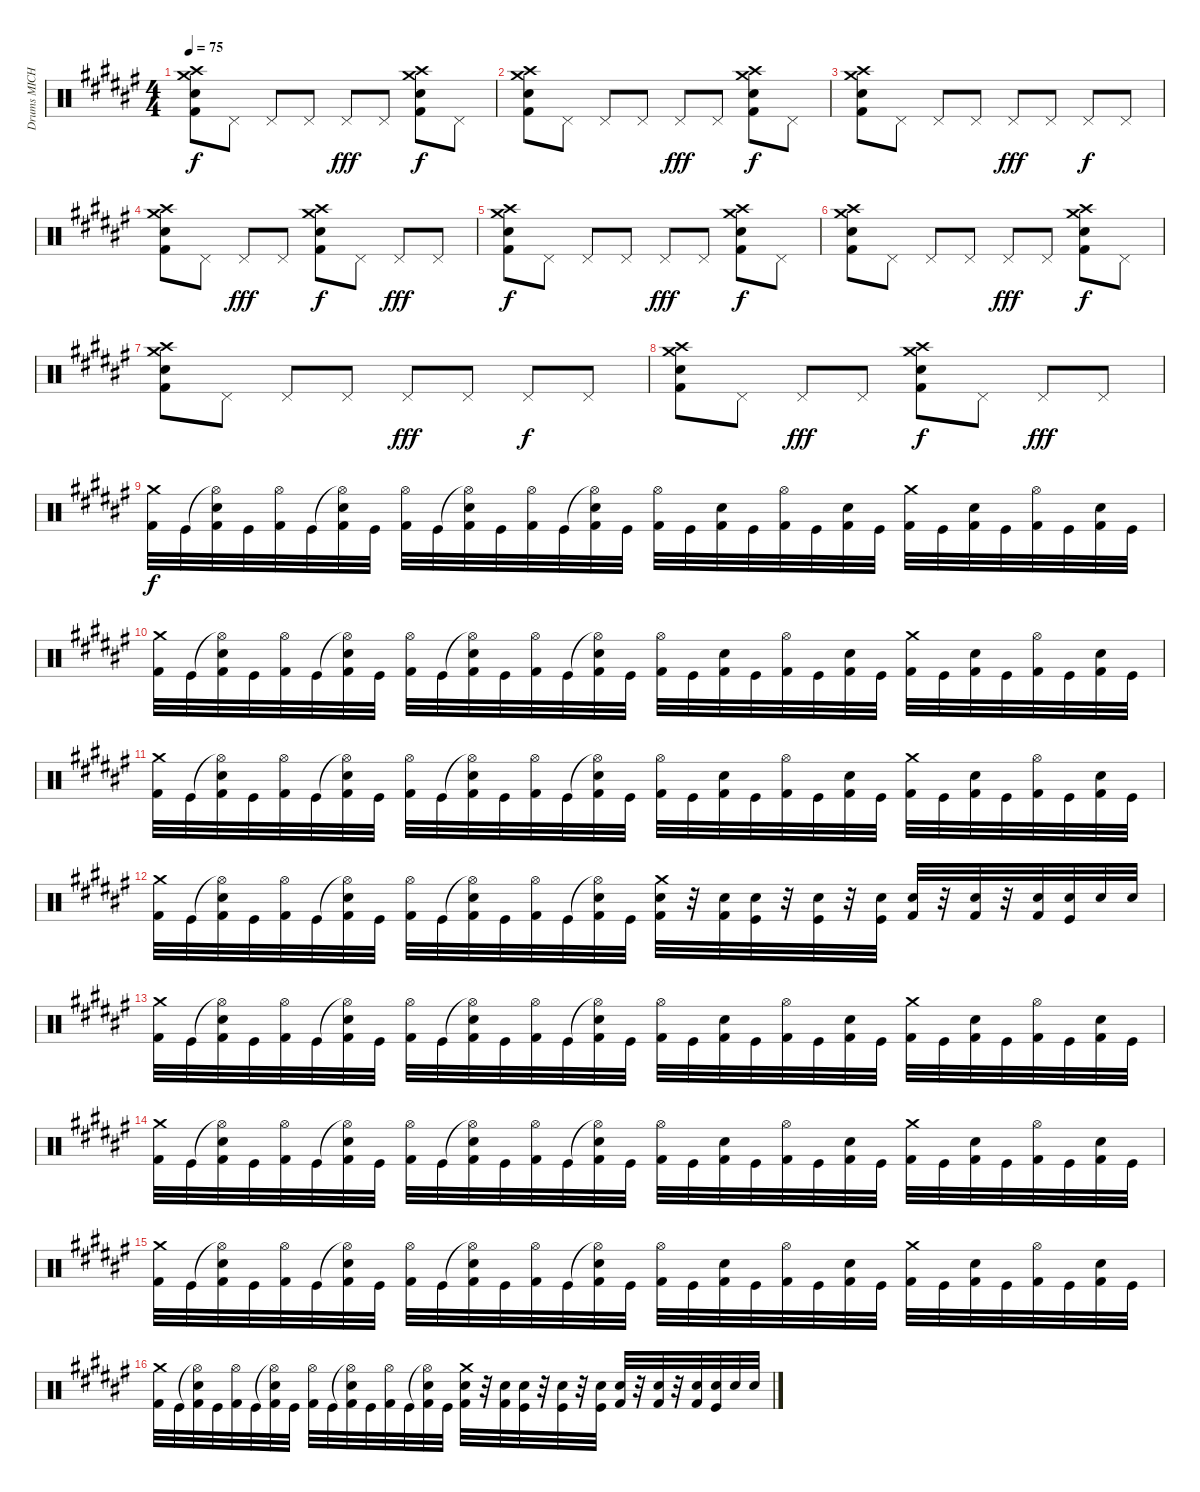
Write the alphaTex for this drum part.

\track ("Drums MICHAEL" "Drums MICH") {instrument percussion}
\staff {score}
\articulation defaults
\ts (4 4)
\tempo 75
\clef neutral
\ks d#minor
("Crash medium (hit)" "Crash high (hit)" "Snare (hit) 2" "Kick (hit) 2").8{dy f} "Pedal Hi-Hat (hit)".8 "Pedal Hi-Hat (hit)".8 "Pedal Hi-Hat (hit)".8 "Pedal Hi-Hat (hit)".8{dy fff} "Pedal Hi-Hat (hit)".8 ("Crash medium (hit)" "Crash high (hit)" "Snare (hit) 2" "Kick (hit) 2").8{dy f} "Pedal Hi-Hat (hit)".8 |
("Crash medium (hit)" "Crash high (hit)" "Snare (hit) 2" "Kick (hit) 2").8 "Pedal Hi-Hat (hit)".8 "Pedal Hi-Hat (hit)".8 "Pedal Hi-Hat (hit)".8 "Pedal Hi-Hat (hit)".8{dy fff} "Pedal Hi-Hat (hit)".8 ("Crash medium (hit)" "Crash high (hit)" "Snare (hit) 2" "Kick (hit) 2").8{dy f} "Pedal Hi-Hat (hit)".8 |
("Crash medium (hit)" "Crash high (hit)" "Snare (hit) 2" "Kick (hit) 2").8 "Pedal Hi-Hat (hit)".8 "Pedal Hi-Hat (hit)".8 "Pedal Hi-Hat (hit)".8 "Pedal Hi-Hat (hit)".8{dy fff} "Pedal Hi-Hat (hit)".8 "Pedal Hi-Hat (hit)".8{dy f} "Pedal Hi-Hat (hit)".8 |
("Crash medium (hit)" "Crash high (hit)" "Snare (hit) 2" "Kick (hit) 2").8 "Pedal Hi-Hat (hit)".8 "Pedal Hi-Hat (hit)".8{dy fff} "Pedal Hi-Hat (hit)".8 ("Crash medium (hit)" "Crash high (hit)" "Snare (hit) 2" "Kick (hit) 2").8{dy f} "Pedal Hi-Hat (hit)".8 "Pedal Hi-Hat (hit)".8{dy fff} "Pedal Hi-Hat (hit)".8 |
("Crash medium (hit)" "Crash high (hit)" "Snare (hit) 2" "Kick (hit) 2").8{dy f} "Pedal Hi-Hat (hit)".8 "Pedal Hi-Hat (hit)".8 "Pedal Hi-Hat (hit)".8 "Pedal Hi-Hat (hit)".8{dy fff} "Pedal Hi-Hat (hit)".8 ("Crash medium (hit)" "Crash high (hit)" "Snare (hit) 2" "Kick (hit) 2").8{dy f} "Pedal Hi-Hat (hit)".8 |
("Crash medium (hit)" "Crash high (hit)" "Snare (hit) 2" "Kick (hit) 2").8 "Pedal Hi-Hat (hit)".8 "Pedal Hi-Hat (hit)".8 "Pedal Hi-Hat (hit)".8 "Pedal Hi-Hat (hit)".8{dy fff} "Pedal Hi-Hat (hit)".8 ("Crash medium (hit)" "Crash high (hit)" "Snare (hit) 2" "Kick (hit) 2").8{dy f} "Pedal Hi-Hat (hit)".8 |
("Crash medium (hit)" "Crash high (hit)" "Snare (hit) 2" "Kick (hit) 2").8 "Pedal Hi-Hat (hit)".8 "Pedal Hi-Hat (hit)".8 "Pedal Hi-Hat (hit)".8 "Pedal Hi-Hat (hit)".8{dy fff} "Pedal Hi-Hat (hit)".8 "Pedal Hi-Hat (hit)".8{dy f} "Pedal Hi-Hat (hit)".8 |
("Crash medium (hit)" "Crash high (hit)" "Snare (hit) 2" "Kick (hit) 2").8 "Pedal Hi-Hat (hit)".8 "Pedal Hi-Hat (hit)".8{dy fff} "Pedal Hi-Hat (hit)".8 ("Crash medium (hit)" "Crash high (hit)" "Snare (hit) 2" "Kick (hit) 2").8{dy f} "Pedal Hi-Hat (hit)".8 "Pedal Hi-Hat (hit)".8{dy fff} "Pedal Hi-Hat (hit)".8 |
("Crash medium (hit)" "Kick (hit) 2").32{dy f} "Kick (hit)".32 ("Hi-Hat (open)"{t} "Snare (hit) 2" "Kick (hit) 2").32 "Kick (hit)".32 ("Hi-Hat (open)" "Kick (hit) 2").32 "Kick (hit)".32 ("Hi-Hat (open)"{t} "Snare (hit) 2" "Kick (hit) 2").32 "Kick (hit)".32 ("Hi-Hat (open)" "Kick (hit) 2").32 "Kick (hit)".32 ("Hi-Hat (open)"{t} "Snare (hit) 2" "Kick (hit) 2").32 "Kick (hit)".32 ("Hi-Hat (open)" "Kick (hit) 2").32 "Kick (hit)".32 ("Hi-Hat (open)"{t} "Snare (hit) 2" "Kick (hit) 2").32 "Kick (hit)".32 ("Hi-Hat (open)" "Kick (hit) 2").32 "Kick (hit)".32 ("Snare (hit) 2" "Kick (hit) 2").32 "Kick (hit)".32 ("Hi-Hat (open)" "Kick (hit) 2").32 "Kick (hit)".32 ("Snare (hit) 2" "Kick (hit) 2").32 "Kick (hit)".32 ("Crash medium (hit)" "Kick (hit) 2").32 "Kick (hit)".32 ("Snare (hit) 2" "Kick (hit) 2").32 "Kick (hit)".32 ("Hi-Hat (open)" "Kick (hit) 2").32 "Kick (hit)".32 ("Snare (hit) 2" "Kick (hit) 2").32 "Kick (hit)".32 |
("Crash medium (hit)" "Kick (hit) 2").32 "Kick (hit)".32 ("Hi-Hat (open)"{t} "Snare (hit) 2" "Kick (hit) 2").32 "Kick (hit)".32 ("Hi-Hat (open)" "Kick (hit) 2").32 "Kick (hit)".32 ("Hi-Hat (open)"{t} "Snare (hit) 2" "Kick (hit) 2").32 "Kick (hit)".32 ("Hi-Hat (open)" "Kick (hit) 2").32 "Kick (hit)".32 ("Hi-Hat (open)"{t} "Snare (hit) 2" "Kick (hit) 2").32 "Kick (hit)".32 ("Hi-Hat (open)" "Kick (hit) 2").32 "Kick (hit)".32 ("Hi-Hat (open)"{t} "Snare (hit) 2" "Kick (hit) 2").32 "Kick (hit)".32 ("Hi-Hat (open)" "Kick (hit) 2").32 "Kick (hit)".32 ("Snare (hit) 2" "Kick (hit) 2").32 "Kick (hit)".32 ("Hi-Hat (open)" "Kick (hit) 2").32 "Kick (hit)".32 ("Snare (hit) 2" "Kick (hit) 2").32 "Kick (hit)".32 ("Crash medium (hit)" "Kick (hit) 2").32 "Kick (hit)".32 ("Snare (hit) 2" "Kick (hit) 2").32 "Kick (hit)".32 ("Hi-Hat (open)" "Kick (hit) 2").32 "Kick (hit)".32 ("Snare (hit) 2" "Kick (hit) 2").32 "Kick (hit)".32 |
("Crash medium (hit)" "Kick (hit) 2").32 "Kick (hit)".32 ("Hi-Hat (open)"{t} "Snare (hit) 2" "Kick (hit) 2").32 "Kick (hit)".32 ("Hi-Hat (open)" "Kick (hit) 2").32 "Kick (hit)".32 ("Hi-Hat (open)"{t} "Snare (hit) 2" "Kick (hit) 2").32 "Kick (hit)".32 ("Hi-Hat (open)" "Kick (hit) 2").32 "Kick (hit)".32 ("Hi-Hat (open)"{t} "Snare (hit) 2" "Kick (hit) 2").32 "Kick (hit)".32 ("Hi-Hat (open)" "Kick (hit) 2").32 "Kick (hit)".32 ("Hi-Hat (open)"{t} "Snare (hit) 2" "Kick (hit) 2").32 "Kick (hit)".32 ("Hi-Hat (open)" "Kick (hit) 2").32 "Kick (hit)".32 ("Snare (hit) 2" "Kick (hit) 2").32 "Kick (hit)".32 ("Hi-Hat (open)" "Kick (hit) 2").32 "Kick (hit)".32 ("Snare (hit) 2" "Kick (hit) 2").32 "Kick (hit)".32 ("Crash medium (hit)" "Kick (hit) 2").32 "Kick (hit)".32 ("Snare (hit) 2" "Kick (hit) 2").32 "Kick (hit)".32 ("Hi-Hat (open)" "Kick (hit) 2").32 "Kick (hit)".32 ("Snare (hit) 2" "Kick (hit) 2").32 "Kick (hit)".32 |
("Crash medium (hit)" "Kick (hit) 2").32 "Kick (hit)".32 ("Hi-Hat (open)"{t} "Snare (hit) 2" "Kick (hit) 2").32 "Kick (hit)".32 ("Hi-Hat (open)" "Kick (hit) 2").32 "Kick (hit)".32 ("Hi-Hat (open)"{t} "Snare (hit) 2" "Kick (hit) 2").32 "Kick (hit)".32 ("Hi-Hat (open)" "Kick (hit) 2").32 "Kick (hit)".32 ("Hi-Hat (open)"{t} "Snare (hit) 2" "Kick (hit) 2").32 "Kick (hit)".32 ("Hi-Hat (open)" "Kick (hit) 2").32 "Kick (hit)".32 ("Hi-Hat (open)"{t} "Snare (hit) 2" "Kick (hit) 2").32 "Kick (hit)".32 ("Crash medium (hit)" "Snare (hit) 2" "Kick (hit) 2").32 r.32 ("Snare (hit) 2" "Kick (hit) 2").32 ("Snare (hit) 2" "Kick (hit)").32 r.32 ("Snare (hit) 2" "Kick (hit)").32 r.32 ("Snare (hit) 2" "Kick (hit)").32 ("Snare (hit) 2" "Kick (hit) 2").32 r.32 ("Snare (hit) 2" "Kick (hit) 2").32 r.32 ("Snare (hit) 2" "Kick (hit) 2").32 ("Snare (hit) 2" "Kick (hit)").32 "Snare (hit) 2".32 "Snare (hit) 2".32 |
("Crash medium (hit)" "Kick (hit) 2").32 "Kick (hit)".32 ("Hi-Hat (open)"{t} "Snare (hit) 2" "Kick (hit) 2").32 "Kick (hit)".32 ("Hi-Hat (open)" "Kick (hit) 2").32 "Kick (hit)".32 ("Hi-Hat (open)"{t} "Snare (hit) 2" "Kick (hit) 2").32 "Kick (hit)".32 ("Hi-Hat (open)" "Kick (hit) 2").32 "Kick (hit)".32 ("Hi-Hat (open)"{t} "Snare (hit) 2" "Kick (hit) 2").32 "Kick (hit)".32 ("Hi-Hat (open)" "Kick (hit) 2").32 "Kick (hit)".32 ("Hi-Hat (open)"{t} "Snare (hit) 2" "Kick (hit) 2").32 "Kick (hit)".32 ("Hi-Hat (open)" "Kick (hit) 2").32 "Kick (hit)".32 ("Snare (hit) 2" "Kick (hit) 2").32 "Kick (hit)".32 ("Hi-Hat (open)" "Kick (hit) 2").32 "Kick (hit)".32 ("Snare (hit) 2" "Kick (hit) 2").32 "Kick (hit)".32 ("Crash medium (hit)" "Kick (hit) 2").32 "Kick (hit)".32 ("Snare (hit) 2" "Kick (hit) 2").32 "Kick (hit)".32 ("Hi-Hat (open)" "Kick (hit) 2").32 "Kick (hit)".32 ("Snare (hit) 2" "Kick (hit) 2").32 "Kick (hit)".32 |
("Crash medium (hit)" "Kick (hit) 2").32 "Kick (hit)".32 ("Hi-Hat (open)"{t} "Snare (hit) 2" "Kick (hit) 2").32 "Kick (hit)".32 ("Hi-Hat (open)" "Kick (hit) 2").32 "Kick (hit)".32 ("Hi-Hat (open)"{t} "Snare (hit) 2" "Kick (hit) 2").32 "Kick (hit)".32 ("Hi-Hat (open)" "Kick (hit) 2").32 "Kick (hit)".32 ("Hi-Hat (open)"{t} "Snare (hit) 2" "Kick (hit) 2").32 "Kick (hit)".32 ("Hi-Hat (open)" "Kick (hit) 2").32 "Kick (hit)".32 ("Hi-Hat (open)"{t} "Snare (hit) 2" "Kick (hit) 2").32 "Kick (hit)".32 ("Hi-Hat (open)" "Kick (hit) 2").32 "Kick (hit)".32 ("Snare (hit) 2" "Kick (hit) 2").32 "Kick (hit)".32 ("Hi-Hat (open)" "Kick (hit) 2").32 "Kick (hit)".32 ("Snare (hit) 2" "Kick (hit) 2").32 "Kick (hit)".32 ("Crash medium (hit)" "Kick (hit) 2").32 "Kick (hit)".32 ("Snare (hit) 2" "Kick (hit) 2").32 "Kick (hit)".32 ("Hi-Hat (open)" "Kick (hit) 2").32 "Kick (hit)".32 ("Snare (hit) 2" "Kick (hit) 2").32 "Kick (hit)".32 |
("Crash medium (hit)" "Kick (hit) 2").32 "Kick (hit)".32 ("Hi-Hat (open)"{t} "Snare (hit) 2" "Kick (hit) 2").32 "Kick (hit)".32 ("Hi-Hat (open)" "Kick (hit) 2").32 "Kick (hit)".32 ("Hi-Hat (open)"{t} "Snare (hit) 2" "Kick (hit) 2").32 "Kick (hit)".32 ("Hi-Hat (open)" "Kick (hit) 2").32 "Kick (hit)".32 ("Hi-Hat (open)"{t} "Snare (hit) 2" "Kick (hit) 2").32 "Kick (hit)".32 ("Hi-Hat (open)" "Kick (hit) 2").32 "Kick (hit)".32 ("Hi-Hat (open)"{t} "Snare (hit) 2" "Kick (hit) 2").32 "Kick (hit)".32 ("Hi-Hat (open)" "Kick (hit) 2").32 "Kick (hit)".32 ("Snare (hit) 2" "Kick (hit) 2").32 "Kick (hit)".32 ("Hi-Hat (open)" "Kick (hit) 2").32 "Kick (hit)".32 ("Snare (hit) 2" "Kick (hit) 2").32 "Kick (hit)".32 ("Crash medium (hit)" "Kick (hit) 2").32 "Kick (hit)".32 ("Snare (hit) 2" "Kick (hit) 2").32 "Kick (hit)".32 ("Hi-Hat (open)" "Kick (hit) 2").32 "Kick (hit)".32 ("Snare (hit) 2" "Kick (hit) 2").32 "Kick (hit)".32 |
("Crash medium (hit)" "Kick (hit) 2").32 "Kick (hit)".32 ("Hi-Hat (open)"{t} "Snare (hit) 2" "Kick (hit) 2").32 "Kick (hit)".32 ("Hi-Hat (open)" "Kick (hit) 2").32 "Kick (hit)".32 ("Hi-Hat (open)"{t} "Snare (hit) 2" "Kick (hit) 2").32 "Kick (hit)".32 ("Hi-Hat (open)" "Kick (hit) 2").32 "Kick (hit)".32 ("Hi-Hat (open)"{t} "Snare (hit) 2" "Kick (hit) 2").32 "Kick (hit)".32 ("Hi-Hat (open)" "Kick (hit) 2").32 "Kick (hit)".32 ("Hi-Hat (open)"{t} "Snare (hit) 2" "Kick (hit) 2").32 "Kick (hit)".32 ("Crash medium (hit)" "Snare (hit) 2" "Kick (hit) 2").32 r.32 ("Snare (hit) 2" "Kick (hit) 2").32 ("Snare (hit) 2" "Kick (hit)").32 r.32 ("Snare (hit) 2" "Kick (hit)").32 r.32 ("Snare (hit) 2" "Kick (hit)").32 ("Snare (hit) 2" "Kick (hit) 2").32 r.32 ("Snare (hit) 2" "Kick (hit) 2").32 r.32 ("Snare (hit) 2" "Kick (hit) 2").32 ("Snare (hit) 2" "Kick (hit)").32 "Snare (hit) 2".32 "Snare (hit) 2".32
